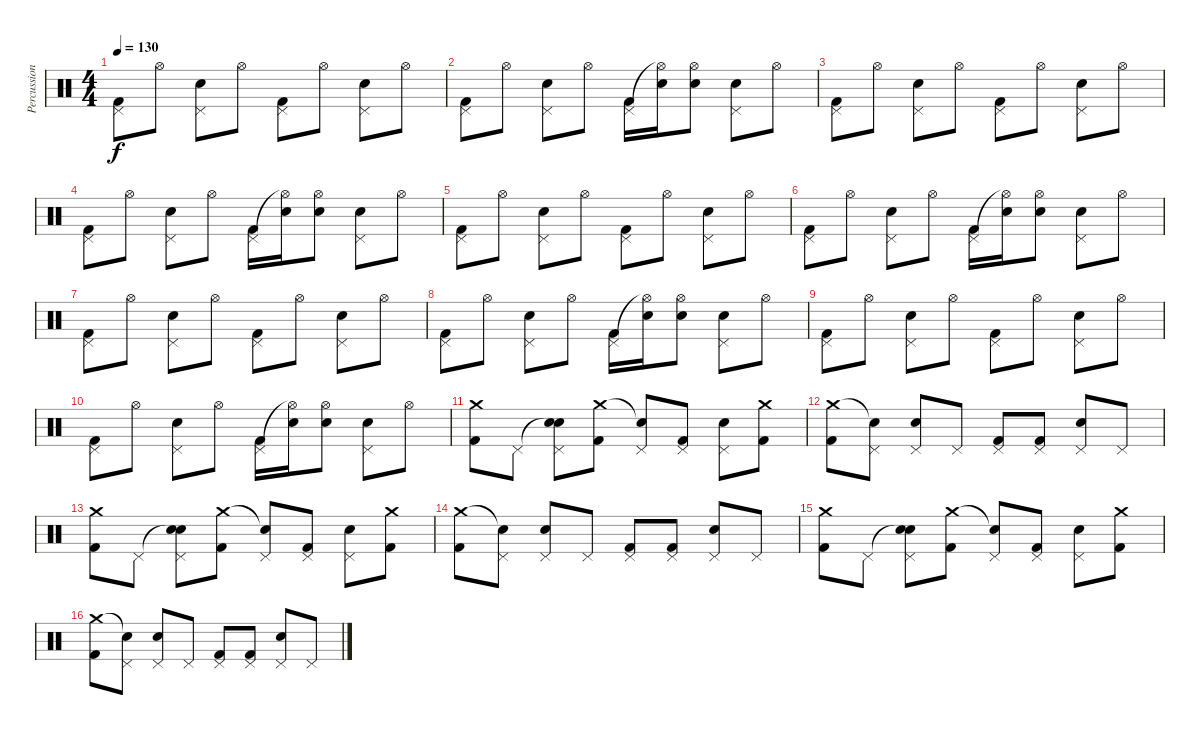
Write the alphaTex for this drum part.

\track ("Percussion" "Percussion") {instrument percussion}
\staff {score}
\articulation defaults
\ts (4 4)
\tempo 130
\clef neutral
\ks c
("Pedal Hi-Hat (hit)" "Kick (hit) 2").8{dy f} "Hi-Hat (open)".8 ("Pedal Hi-Hat (hit)" "Snare (hit) 2").8 "Hi-Hat (open)".8 ("Pedal Hi-Hat (hit)" "Kick (hit) 2").8 "Hi-Hat (open)".8 ("Pedal Hi-Hat (hit)" "Snare (hit) 2").8 "Hi-Hat (open)".8 |
("Pedal Hi-Hat (hit)" "Kick (hit) 2").8 "Hi-Hat (open)".8 ("Pedal Hi-Hat (hit)" "Snare (hit) 2").8 "Hi-Hat (open)".8 ("Pedal Hi-Hat (hit)" "Kick (hit) 2").16 ("Hi-Hat (open)"{t} "Snare (hit) 2").16 ("Hi-Hat (open)" "Snare (hit) 2").8 ("Pedal Hi-Hat (hit)" "Snare (hit) 2").8 "Hi-Hat (open)".8 |
("Pedal Hi-Hat (hit)" "Kick (hit) 2").8 "Hi-Hat (open)".8 ("Pedal Hi-Hat (hit)" "Snare (hit) 2").8 "Hi-Hat (open)".8 ("Pedal Hi-Hat (hit)" "Kick (hit) 2").8 "Hi-Hat (open)".8 ("Pedal Hi-Hat (hit)" "Snare (hit) 2").8 "Hi-Hat (open)".8 |
("Pedal Hi-Hat (hit)" "Kick (hit) 2").8 "Hi-Hat (open)".8 ("Pedal Hi-Hat (hit)" "Snare (hit) 2").8 "Hi-Hat (open)".8 ("Pedal Hi-Hat (hit)" "Kick (hit) 2").16 ("Hi-Hat (open)"{t} "Snare (hit) 2").16 ("Hi-Hat (open)" "Snare (hit) 2").8 ("Pedal Hi-Hat (hit)" "Snare (hit) 2").8 "Hi-Hat (open)".8 |
("Pedal Hi-Hat (hit)" "Kick (hit) 2").8 "Hi-Hat (open)".8 ("Pedal Hi-Hat (hit)" "Snare (hit) 2").8 "Hi-Hat (open)".8 ("Pedal Hi-Hat (hit)" "Kick (hit) 2").8 "Hi-Hat (open)".8 ("Pedal Hi-Hat (hit)" "Snare (hit) 2").8 "Hi-Hat (open)".8 |
("Pedal Hi-Hat (hit)" "Kick (hit) 2").8 "Hi-Hat (open)".8 ("Pedal Hi-Hat (hit)" "Snare (hit) 2").8 "Hi-Hat (open)".8 ("Pedal Hi-Hat (hit)" "Kick (hit) 2").16 ("Hi-Hat (open)"{t} "Snare (hit) 2").16 ("Hi-Hat (open)" "Snare (hit) 2").8 ("Pedal Hi-Hat (hit)" "Snare (hit) 2").8 "Hi-Hat (open)".8 |
("Pedal Hi-Hat (hit)" "Kick (hit) 2").8 "Hi-Hat (open)".8 ("Pedal Hi-Hat (hit)" "Snare (hit) 2").8 "Hi-Hat (open)".8 ("Pedal Hi-Hat (hit)" "Kick (hit) 2").8 "Hi-Hat (open)".8 ("Pedal Hi-Hat (hit)" "Snare (hit) 2").8 "Hi-Hat (open)".8 |
("Pedal Hi-Hat (hit)" "Kick (hit) 2").8 "Hi-Hat (open)".8 ("Pedal Hi-Hat (hit)" "Snare (hit) 2").8 "Hi-Hat (open)".8 ("Pedal Hi-Hat (hit)" "Kick (hit) 2").16 ("Hi-Hat (open)"{t} "Snare (hit) 2").16 ("Hi-Hat (open)" "Snare (hit) 2").8 ("Pedal Hi-Hat (hit)" "Snare (hit) 2").8 "Hi-Hat (open)".8 |
("Pedal Hi-Hat (hit)" "Kick (hit) 2").8 "Hi-Hat (open)".8 ("Pedal Hi-Hat (hit)" "Snare (hit) 2").8 "Hi-Hat (open)".8 ("Pedal Hi-Hat (hit)" "Kick (hit) 2").8 "Hi-Hat (open)".8 ("Pedal Hi-Hat (hit)" "Snare (hit) 2").8 "Hi-Hat (open)".8 |
("Pedal Hi-Hat (hit)" "Kick (hit) 2").8 "Hi-Hat (open)".8 ("Pedal Hi-Hat (hit)" "Snare (hit) 2").8 "Hi-Hat (open)".8 ("Pedal Hi-Hat (hit)" "Kick (hit) 2").16 ("Hi-Hat (open)"{t} "Snare (hit) 2").16 ("Hi-Hat (open)" "Snare (hit) 2").8 ("Pedal Hi-Hat (hit)" "Snare (hit) 2").8 "Hi-Hat (open)".8 |
("Crash medium (hit)" "Kick (hit) 2").8 "Pedal Hi-Hat (hit)".8 ("Snare (hit)"{t} "Pedal Hi-Hat (hit)" "Snare (hit) 2").8 ("Crash medium (hit)" "Kick (hit) 2").8 ("Snare (hit)"{t} "Pedal Hi-Hat (hit)").8 ("Pedal Hi-Hat (hit)" "Kick (hit) 2").8 ("Pedal Hi-Hat (hit)" "Snare (hit) 2").8 ("Crash medium (hit)" "Kick (hit) 2").8 |
("Crash medium (hit)" "Kick (hit) 2").8 ("Snare (hit)"{t} "Pedal Hi-Hat (hit)").8 ("Pedal Hi-Hat (hit)" "Snare (hit) 2").8 "Pedal Hi-Hat (hit)".8 ("Pedal Hi-Hat (hit)" "Kick (hit) 2").8 ("Pedal Hi-Hat (hit)" "Kick (hit) 2").8 ("Pedal Hi-Hat (hit)" "Snare (hit) 2").8 "Pedal Hi-Hat (hit)".8 |
("Crash medium (hit)" "Kick (hit) 2").8 "Pedal Hi-Hat (hit)".8 ("Snare (hit)"{t} "Pedal Hi-Hat (hit)" "Snare (hit) 2").8 ("Crash medium (hit)" "Kick (hit) 2").8 ("Snare (hit)"{t} "Pedal Hi-Hat (hit)").8 ("Pedal Hi-Hat (hit)" "Kick (hit) 2").8 ("Pedal Hi-Hat (hit)" "Snare (hit) 2").8 ("Crash medium (hit)" "Kick (hit) 2").8 |
("Crash medium (hit)" "Kick (hit) 2").8 ("Snare (hit)"{t} "Pedal Hi-Hat (hit)").8 ("Pedal Hi-Hat (hit)" "Snare (hit) 2").8 "Pedal Hi-Hat (hit)".8 ("Pedal Hi-Hat (hit)" "Kick (hit) 2").8 ("Pedal Hi-Hat (hit)" "Kick (hit) 2").8 ("Pedal Hi-Hat (hit)" "Snare (hit) 2").8 "Pedal Hi-Hat (hit)".8 |
("Crash medium (hit)" "Kick (hit) 2").8 "Pedal Hi-Hat (hit)".8 ("Snare (hit)"{t} "Pedal Hi-Hat (hit)" "Snare (hit) 2").8 ("Crash medium (hit)" "Kick (hit) 2").8 ("Snare (hit)"{t} "Pedal Hi-Hat (hit)").8 ("Pedal Hi-Hat (hit)" "Kick (hit) 2").8 ("Pedal Hi-Hat (hit)" "Snare (hit) 2").8 ("Crash medium (hit)" "Kick (hit) 2").8 |
("Crash medium (hit)" "Kick (hit) 2").8 ("Snare (hit)"{t} "Pedal Hi-Hat (hit)").8 ("Pedal Hi-Hat (hit)" "Snare (hit) 2").8 "Pedal Hi-Hat (hit)".8 ("Pedal Hi-Hat (hit)" "Kick (hit) 2").8 ("Pedal Hi-Hat (hit)" "Kick (hit) 2").8 ("Pedal Hi-Hat (hit)" "Snare (hit) 2").8 "Pedal Hi-Hat (hit)".8
